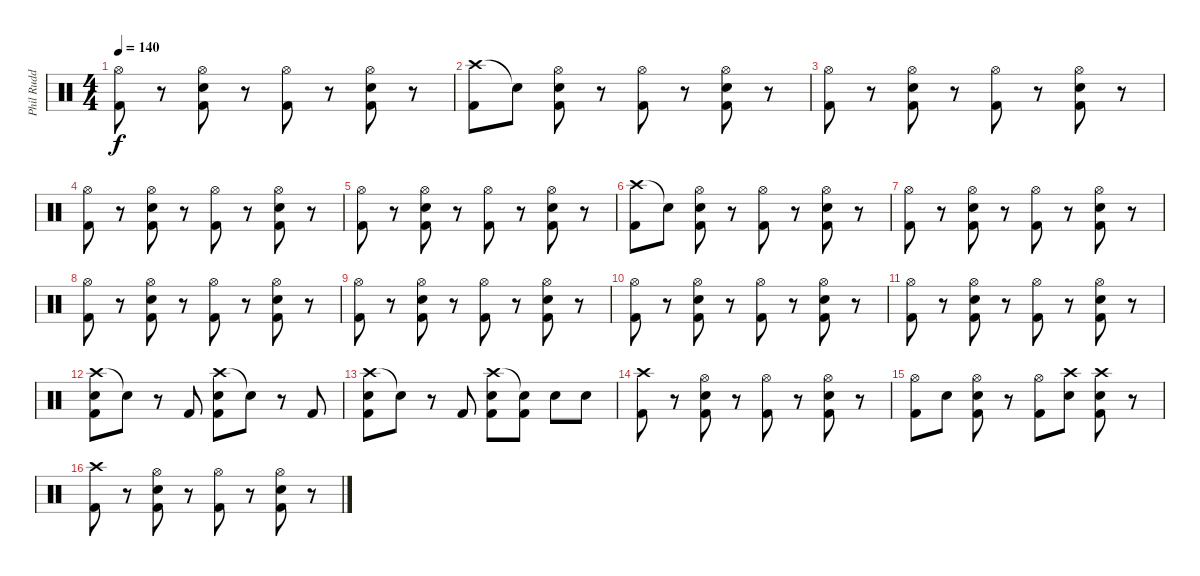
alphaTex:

\track ("Phil Rudd" "Phil Rudd") {instrument percussion}
\staff {score}
\articulation defaults
\ts (4 4)
\tempo 140
\clef neutral
\ks c
("Hi-Hat (open)" "Kick (hit) 2").8{dy f} r.8 ("Hi-Hat (open)" "Electric Snare (hit)" "Kick (hit) 2").8 r.8 ("Hi-Hat (open)" "Kick (hit) 2").8 r.8 ("Hi-Hat (open)" "Electric Snare (hit)" "Kick (hit) 2").8 r.8 |
("Crash high (hit)" "Kick (hit) 2").8 "Snare (hit)"{t}.8 ("Hi-Hat (open)" "Electric Snare (hit)" "Kick (hit) 2").8 r.8 ("Hi-Hat (open)" "Kick (hit) 2").8 r.8 ("Hi-Hat (open)" "Electric Snare (hit)" "Kick (hit) 2").8 r.8 |
("Hi-Hat (open)" "Kick (hit) 2").8 r.8 ("Hi-Hat (open)" "Electric Snare (hit)" "Kick (hit) 2").8 r.8 ("Hi-Hat (open)" "Kick (hit) 2").8 r.8 ("Hi-Hat (open)" "Electric Snare (hit)" "Kick (hit) 2").8 r.8 |
("Hi-Hat (open)" "Kick (hit) 2").8 r.8 ("Hi-Hat (open)" "Electric Snare (hit)" "Kick (hit) 2").8 r.8 ("Hi-Hat (open)" "Kick (hit) 2").8 r.8 ("Hi-Hat (open)" "Electric Snare (hit)" "Kick (hit) 2").8 r.8 |
("Hi-Hat (open)" "Kick (hit) 2").8 r.8 ("Hi-Hat (open)" "Electric Snare (hit)" "Kick (hit) 2").8 r.8 ("Hi-Hat (open)" "Kick (hit) 2").8 r.8 ("Hi-Hat (open)" "Electric Snare (hit)" "Kick (hit) 2").8 r.8 |
("Crash high (hit)" "Kick (hit) 2").8 "Snare (hit)"{t}.8 ("Hi-Hat (open)" "Electric Snare (hit)" "Kick (hit) 2").8 r.8 ("Hi-Hat (open)" "Kick (hit) 2").8 r.8 ("Hi-Hat (open)" "Electric Snare (hit)" "Kick (hit) 2").8 r.8 |
("Hi-Hat (open)" "Kick (hit) 2").8 r.8 ("Hi-Hat (open)" "Electric Snare (hit)" "Kick (hit) 2").8 r.8 ("Hi-Hat (open)" "Kick (hit) 2").8 r.8 ("Hi-Hat (open)" "Electric Snare (hit)" "Kick (hit) 2").8 r.8 |
("Hi-Hat (open)" "Kick (hit) 2").8 r.8 ("Hi-Hat (open)" "Electric Snare (hit)" "Kick (hit) 2").8 r.8 ("Hi-Hat (open)" "Kick (hit) 2").8 r.8 ("Hi-Hat (open)" "Electric Snare (hit)" "Kick (hit) 2").8 r.8 |
("Hi-Hat (open)" "Kick (hit) 2").8 r.8 ("Hi-Hat (open)" "Electric Snare (hit)" "Kick (hit) 2").8 r.8 ("Hi-Hat (open)" "Kick (hit) 2").8 r.8 ("Hi-Hat (open)" "Electric Snare (hit)" "Kick (hit) 2").8 r.8 |
("Hi-Hat (open)" "Kick (hit) 2").8 r.8 ("Hi-Hat (open)" "Electric Snare (hit)" "Kick (hit) 2").8 r.8 ("Hi-Hat (open)" "Kick (hit) 2").8 r.8 ("Hi-Hat (open)" "Electric Snare (hit)" "Kick (hit) 2").8 r.8 |
("Hi-Hat (open)" "Kick (hit) 2").8 r.8 ("Hi-Hat (open)" "Electric Snare (hit)" "Kick (hit) 2").8 r.8 ("Hi-Hat (open)" "Kick (hit) 2").8 r.8 ("Hi-Hat (open)" "Electric Snare (hit)" "Kick (hit) 2").8 r.8 |
("Crash high (hit)" "Electric Snare (hit)" "Kick (hit) 2").8 "Snare (hit)"{t}.8 r.8 "Kick (hit) 2".8 ("Crash high (hit)" "Electric Snare (hit)" "Kick (hit) 2").8 "Snare (hit)"{t}.8 r.8 "Kick (hit) 2".8 |
("Crash high (hit)" "Electric Snare (hit)" "Kick (hit) 2").8 "Snare (hit)"{t}.8 r.8 "Kick (hit) 2".8 ("Crash high (hit)" "Electric Snare (hit)" "Kick (hit) 2").8 ("Snare (hit)"{t} "Kick (hit) 2").8 "Electric Snare (hit)".8 "Electric Snare (hit)".8 |
("Crash high (hit)" "Kick (hit) 2").8 r.8 ("Hi-Hat (open)" "Electric Snare (hit)" "Kick (hit) 2").8 r.8 ("Hi-Hat (open)" "Kick (hit) 2").8 r.8 ("Hi-Hat (open)" "Electric Snare (hit)" "Kick (hit) 2").8 r.8 |
("Hi-Hat (open)" "Kick (hit) 2").8 "Electric Snare (hit)".8 ("Hi-Hat (open)" "Electric Snare (hit)" "Kick (hit) 2").8 r.8 ("Hi-Hat (open)" "Kick (hit) 2").8 ("Crash high (hit)" "Electric Snare (hit)").8 ("Crash high (hit)" "Electric Snare (hit)" "Kick (hit) 2").8 r.8 |
("Crash high (hit)" "Kick (hit) 2").8 r.8 ("Hi-Hat (open)" "Electric Snare (hit)" "Kick (hit) 2").8 r.8 ("Hi-Hat (open)" "Kick (hit) 2").8 r.8 ("Hi-Hat (open)" "Electric Snare (hit)" "Kick (hit) 2").8 r.8
